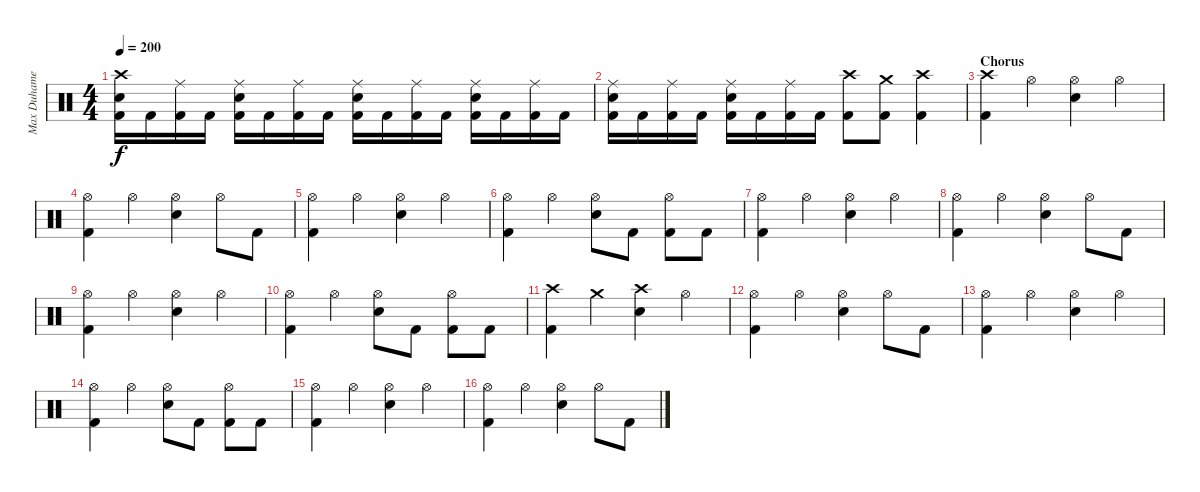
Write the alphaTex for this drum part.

\track ("Max Duhamel" "Max Duhame") {instrument percussion}
\staff {score}
\articulation defaults
\ts (4 4)
\tempo 200
\clef neutral
\ks c
("Crash high (hit)" "Electric Snare (hit)" "Kick (hit) 2").16{dy f} "Kick (hit) 2".16 ("Ride (middle)" "Kick (hit) 2").16 "Kick (hit) 2".16 ("Ride (middle)" "Electric Snare (hit)" "Kick (hit) 2").16 "Kick (hit) 2".16 ("Ride (middle)" "Kick (hit) 2").16 "Kick (hit) 2".16 ("Ride (middle)" "Electric Snare (hit)" "Kick (hit) 2").16 "Kick (hit) 2".16 ("Ride (middle)" "Kick (hit) 2").16 "Kick (hit) 2".16 ("Ride (middle)" "Electric Snare (hit)" "Kick (hit) 2").16 "Kick (hit) 2".16 ("Ride (middle)" "Kick (hit) 2").16 "Kick (hit) 2".16 |
("Ride (middle)" "Electric Snare (hit)" "Kick (hit) 2").16 "Kick (hit) 2".16 ("Ride (middle)" "Kick (hit) 2").16 "Kick (hit) 2".16 ("Ride (middle)" "Electric Snare (hit)" "Kick (hit) 2").16 "Kick (hit) 2".16 ("Ride (middle)" "Kick (hit) 2").16 "Kick (hit) 2".16 ("Crash high (hit)" "Kick (hit) 2").8 ("Crash medium (hit)" "Kick (hit) 2").8 ("Crash high (hit)" "Kick (hit) 2").4 |
\section ("" "Chorus")
("Crash high (hit)" "Kick (hit) 2").4 "Hi-Hat (open)".4 ("Hi-Hat (open)" "Electric Snare (hit)").4 "Hi-Hat (open)".4 |
("Hi-Hat (open)" "Kick (hit) 2").4 "Hi-Hat (open)".4 ("Hi-Hat (open)" "Electric Snare (hit)").4 "Hi-Hat (open)".8 "Kick (hit) 2".8 |
("Hi-Hat (open)" "Kick (hit) 2").4 "Hi-Hat (open)".4 ("Hi-Hat (open)" "Electric Snare (hit)").4 "Hi-Hat (open)".4 |
("Hi-Hat (open)" "Kick (hit) 2").4 "Hi-Hat (open)".4 ("Hi-Hat (open)" "Electric Snare (hit)").8 "Kick (hit) 2".8 ("Hi-Hat (open)" "Kick (hit) 2").8 "Kick (hit) 2".8 |
("Hi-Hat (open)" "Kick (hit) 2").4 "Hi-Hat (open)".4 ("Hi-Hat (open)" "Electric Snare (hit)").4 "Hi-Hat (open)".4 |
("Hi-Hat (open)" "Kick (hit) 2").4 "Hi-Hat (open)".4 ("Hi-Hat (open)" "Electric Snare (hit)").4 "Hi-Hat (open)".8 "Kick (hit) 2".8 |
("Hi-Hat (open)" "Kick (hit) 2").4 "Hi-Hat (open)".4 ("Hi-Hat (open)" "Electric Snare (hit)").4 "Hi-Hat (open)".4 |
("Hi-Hat (open)" "Kick (hit) 2").4 "Hi-Hat (open)".4 ("Hi-Hat (open)" "Electric Snare (hit)").8 "Kick (hit) 2".8 ("Hi-Hat (open)" "Kick (hit) 2").8 "Kick (hit) 2".8 |
\section ("" "")
("Crash high (hit)" "Kick (hit) 2").4 "Crash medium (hit)".4 ("Crash high (hit)" "Electric Snare (hit)").4 "Hi-Hat (open)".4 |
("Hi-Hat (open)" "Kick (hit) 2").4 "Hi-Hat (open)".4 ("Hi-Hat (open)" "Electric Snare (hit)").4 "Hi-Hat (open)".8 "Kick (hit) 2".8 |
("Hi-Hat (open)" "Kick (hit) 2").4 "Hi-Hat (open)".4 ("Hi-Hat (open)" "Electric Snare (hit)").4 "Hi-Hat (open)".4 |
("Hi-Hat (open)" "Kick (hit) 2").4 "Hi-Hat (open)".4 ("Hi-Hat (open)" "Electric Snare (hit)").8 "Kick (hit) 2".8 ("Hi-Hat (open)" "Kick (hit) 2").8 "Kick (hit) 2".8 |
("Hi-Hat (open)" "Kick (hit) 2").4 "Hi-Hat (open)".4 ("Hi-Hat (open)" "Electric Snare (hit)").4 "Hi-Hat (open)".4 |
("Hi-Hat (open)" "Kick (hit) 2").4 "Hi-Hat (open)".4 ("Hi-Hat (open)" "Electric Snare (hit)").4 "Hi-Hat (open)".8 "Kick (hit) 2".8
